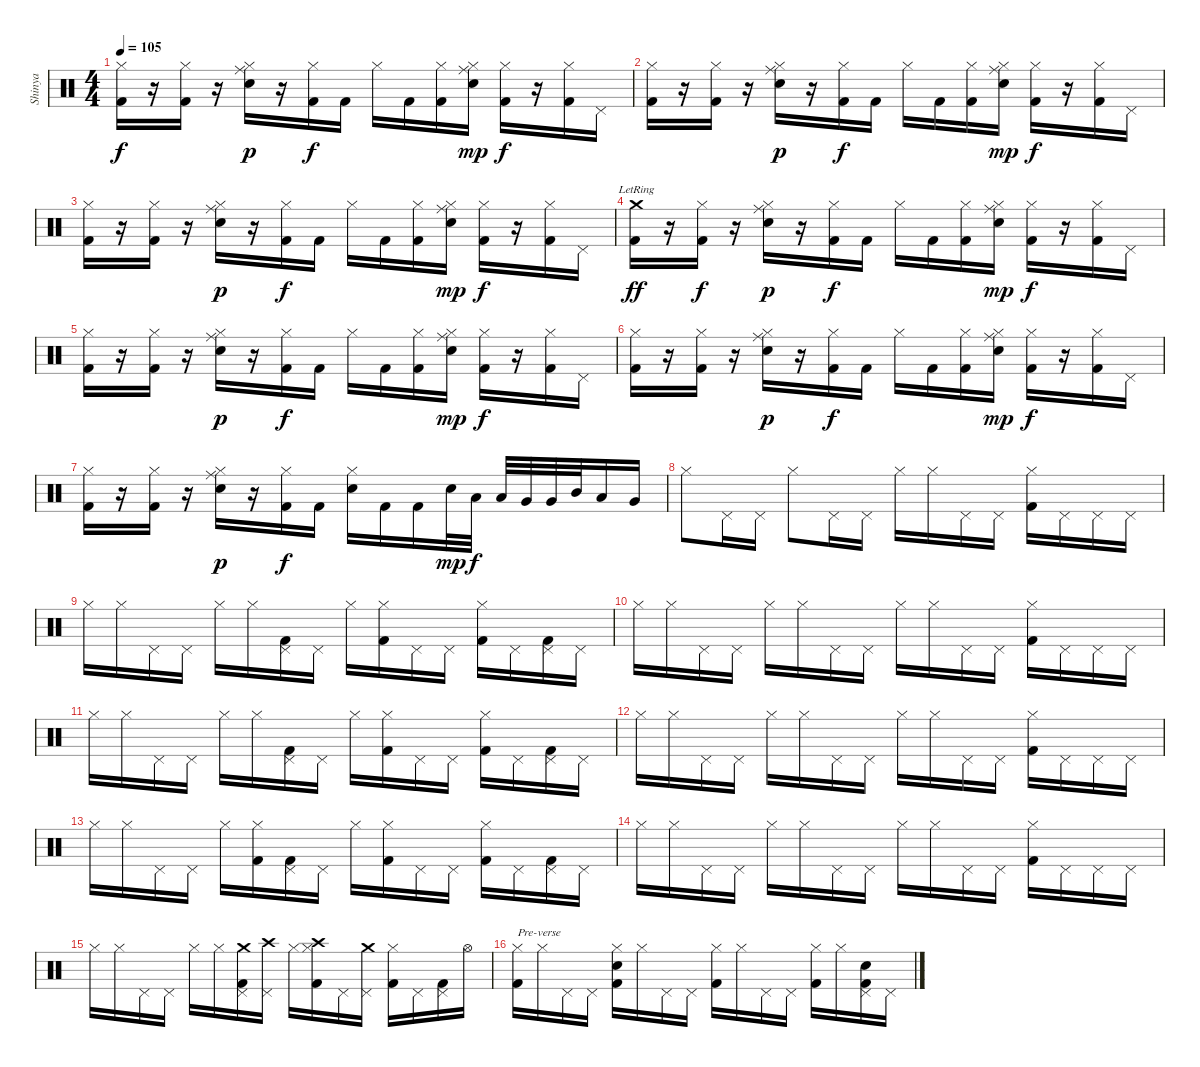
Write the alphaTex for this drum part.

\track ("Shinya" "Shinya") {instrument percussion}
\staff {score}
\articulation defaults
\ts (4 4)
\tempo 105
\clef neutral
\ks c
("Hi-Hat (closed)" "Kick (hit) 2").16{dy f} r.16 ("Hi-Hat (closed)" "Kick (hit) 2").16 r.16 ("Ride (middle)" "Hi-Hat (closed)" "Electric Snare (hit)").16{dy p} r.16 ("Hi-Hat (closed)" "Kick (hit) 2").16{dy f} "Kick (hit) 2".16 "Hi-Hat (closed)".16 "Kick (hit) 2".16 ("Hi-Hat (closed)" "Kick (hit) 2").16 ("Ride (middle)" "Hi-Hat (closed)" "Electric Snare (hit)").16{dy mp} ("Hi-Hat (closed)" "Kick (hit) 2").16{dy f} r.16 ("Hi-Hat (closed)" "Kick (hit) 2").16 "Pedal Hi-Hat (hit)".16 |
("Hi-Hat (closed)" "Kick (hit) 2").16 r.16 ("Hi-Hat (closed)" "Kick (hit) 2").16 r.16 ("Ride (middle)" "Hi-Hat (closed)" "Electric Snare (hit)").16{dy p} r.16 ("Hi-Hat (closed)" "Kick (hit) 2").16{dy f} "Kick (hit) 2".16 "Hi-Hat (closed)".16 "Kick (hit) 2".16 ("Hi-Hat (closed)" "Kick (hit) 2").16 ("Ride (middle)" "Hi-Hat (closed)" "Electric Snare (hit)").16{dy mp} ("Hi-Hat (closed)" "Kick (hit) 2").16{dy f} r.16 ("Hi-Hat (closed)" "Kick (hit) 2").16 "Pedal Hi-Hat (hit)".16 |
("Hi-Hat (closed)" "Kick (hit) 2").16 r.16 ("Hi-Hat (closed)" "Kick (hit) 2").16 r.16 ("Ride (middle)" "Hi-Hat (closed)" "Electric Snare (hit)").16{dy p} r.16 ("Hi-Hat (closed)" "Kick (hit) 2").16{dy f} "Kick (hit) 2".16 "Hi-Hat (closed)".16 "Kick (hit) 2".16 ("Hi-Hat (closed)" "Kick (hit) 2").16 ("Ride (middle)" "Hi-Hat (closed)" "Electric Snare (hit)").16{dy mp} ("Hi-Hat (closed)" "Kick (hit) 2").16{dy f} r.16 ("Hi-Hat (closed)" "Kick (hit) 2").16 "Pedal Hi-Hat (hit)".16 |
("Crash medium (hit)"{lr} "Kick (hit) 2").16{dy ff} r.16 ("Hi-Hat (closed)" "Kick (hit) 2").16{dy f} r.16 ("Ride (middle)" "Hi-Hat (closed)" "Electric Snare (hit)").16{dy p} r.16 ("Hi-Hat (closed)" "Kick (hit) 2").16{dy f} "Kick (hit) 2".16 "Hi-Hat (closed)".16 "Kick (hit) 2".16 ("Hi-Hat (closed)" "Kick (hit) 2").16 ("Ride (middle)" "Hi-Hat (closed)" "Electric Snare (hit)").16{dy mp} ("Hi-Hat (closed)" "Kick (hit) 2").16{dy f} r.16 ("Hi-Hat (closed)" "Kick (hit) 2").16 "Pedal Hi-Hat (hit)".16 |
("Hi-Hat (closed)" "Kick (hit) 2").16 r.16 ("Hi-Hat (closed)" "Kick (hit) 2").16 r.16 ("Ride (middle)" "Hi-Hat (closed)" "Electric Snare (hit)").16{dy p} r.16 ("Hi-Hat (closed)" "Kick (hit) 2").16{dy f} "Kick (hit) 2".16 "Hi-Hat (closed)".16 "Kick (hit) 2".16 ("Hi-Hat (closed)" "Kick (hit) 2").16 ("Ride (middle)" "Hi-Hat (closed)" "Electric Snare (hit)").16{dy mp} ("Hi-Hat (closed)" "Kick (hit) 2").16{dy f} r.16 ("Hi-Hat (closed)" "Kick (hit) 2").16 "Pedal Hi-Hat (hit)".16 |
("Hi-Hat (closed)" "Kick (hit) 2").16 r.16 ("Hi-Hat (closed)" "Kick (hit) 2").16 r.16 ("Ride (middle)" "Hi-Hat (closed)" "Electric Snare (hit)").16{dy p} r.16 ("Hi-Hat (closed)" "Kick (hit) 2").16{dy f} "Kick (hit) 2".16 "Hi-Hat (closed)".16 "Kick (hit) 2".16 ("Hi-Hat (closed)" "Kick (hit) 2").16 ("Ride (middle)" "Hi-Hat (closed)" "Electric Snare (hit)").16{dy mp} ("Hi-Hat (closed)" "Kick (hit) 2").16{dy f} r.16 ("Hi-Hat (closed)" "Kick (hit) 2").16 "Pedal Hi-Hat (hit)".16 |
("Hi-Hat (closed)" "Kick (hit) 2").16 r.16 ("Hi-Hat (closed)" "Kick (hit) 2").16 r.16 ("Ride (middle)" "Hi-Hat (closed)" "Electric Snare (hit)").16{dy p} r.16 ("Hi-Hat (closed)" "Kick (hit) 2").16{dy f} "Kick (hit) 2".16 ("Hi-Hat (closed)" "Electric Snare (hit)").16 "Kick (hit) 2".16 "Kick (hit) 2".16 "Electric Snare (hit)".32{dy mp} "Low Tom (hit)".32{dy f} "Low Tom (hit)".32 "Very Low Tom (hit)".32 "Very Low Tom (hit)".32 "Mid Tom (hit)".32 "Low Tom (hit)".16 "Very Low Tom (hit)".16 |
\section ("" "")
"Hi-Hat (closed)".8 "Pedal Hi-Hat (hit)".16 "Pedal Hi-Hat (hit)".16 "Hi-Hat (closed)".8 "Pedal Hi-Hat (hit)".16 "Pedal Hi-Hat (hit)".16 "Hi-Hat (closed)".16 "Hi-Hat (closed)".16 "Pedal Hi-Hat (hit)".16 "Pedal Hi-Hat (hit)".16 ("Hi-Hat (closed)" "Kick (hit) 2").16 "Pedal Hi-Hat (hit)".16 "Pedal Hi-Hat (hit)".16 "Pedal Hi-Hat (hit)".16 |
"Hi-Hat (closed)".16 "Hi-Hat (closed)".16 "Pedal Hi-Hat (hit)".16 "Pedal Hi-Hat (hit)".16 "Hi-Hat (closed)".16 "Hi-Hat (closed)".16 ("Pedal Hi-Hat (hit)" "Kick (hit) 2").16 "Pedal Hi-Hat (hit)".16 "Hi-Hat (closed)".16 ("Hi-Hat (closed)" "Kick (hit) 2").16 "Pedal Hi-Hat (hit)".16 "Pedal Hi-Hat (hit)".16 ("Hi-Hat (closed)" "Kick (hit) 2").16 "Pedal Hi-Hat (hit)".16 ("Pedal Hi-Hat (hit)" "Kick (hit) 2").16 "Pedal Hi-Hat (hit)".16 |
"Hi-Hat (closed)".16 "Hi-Hat (closed)".16 "Pedal Hi-Hat (hit)".16 "Pedal Hi-Hat (hit)".16 "Hi-Hat (closed)".16 "Hi-Hat (closed)".16 "Pedal Hi-Hat (hit)".16 "Pedal Hi-Hat (hit)".16 "Hi-Hat (closed)".16 "Hi-Hat (closed)".16 "Pedal Hi-Hat (hit)".16 "Pedal Hi-Hat (hit)".16 ("Hi-Hat (closed)" "Kick (hit) 2").16 "Pedal Hi-Hat (hit)".16 "Pedal Hi-Hat (hit)".16 "Pedal Hi-Hat (hit)".16 |
"Hi-Hat (closed)".16 "Hi-Hat (closed)".16 "Pedal Hi-Hat (hit)".16 "Pedal Hi-Hat (hit)".16 "Hi-Hat (closed)".16 "Hi-Hat (closed)".16 ("Pedal Hi-Hat (hit)" "Kick (hit) 2").16 "Pedal Hi-Hat (hit)".16 "Hi-Hat (closed)".16 ("Hi-Hat (closed)" "Kick (hit) 2").16 "Pedal Hi-Hat (hit)".16 "Pedal Hi-Hat (hit)".16 ("Hi-Hat (closed)" "Kick (hit) 2").16 "Pedal Hi-Hat (hit)".16 ("Pedal Hi-Hat (hit)" "Kick (hit) 2").16 "Pedal Hi-Hat (hit)".16 |
"Hi-Hat (closed)".16 "Hi-Hat (closed)".16 "Pedal Hi-Hat (hit)".16 "Pedal Hi-Hat (hit)".16 "Hi-Hat (closed)".16 "Hi-Hat (closed)".16 "Pedal Hi-Hat (hit)".16 "Pedal Hi-Hat (hit)".16 "Hi-Hat (closed)".16 "Hi-Hat (closed)".16 "Pedal Hi-Hat (hit)".16 "Pedal Hi-Hat (hit)".16 ("Hi-Hat (closed)" "Kick (hit) 2").16 "Pedal Hi-Hat (hit)".16 "Pedal Hi-Hat (hit)".16 "Pedal Hi-Hat (hit)".16 |
"Hi-Hat (closed)".16 "Hi-Hat (closed)".16 "Pedal Hi-Hat (hit)".16 "Pedal Hi-Hat (hit)".16 "Hi-Hat (closed)".16 ("Hi-Hat (closed)" "Kick (hit) 2").16 ("Pedal Hi-Hat (hit)" "Kick (hit) 2").16 "Pedal Hi-Hat (hit)".16 "Hi-Hat (closed)".16 ("Hi-Hat (closed)" "Kick (hit) 2").16 "Pedal Hi-Hat (hit)".16 "Pedal Hi-Hat (hit)".16 ("Hi-Hat (closed)" "Kick (hit) 2").16 "Pedal Hi-Hat (hit)".16 ("Pedal Hi-Hat (hit)" "Kick (hit) 2").16 "Pedal Hi-Hat (hit)".16 |
"Hi-Hat (closed)".16 "Hi-Hat (closed)".16 "Pedal Hi-Hat (hit)".16 "Pedal Hi-Hat (hit)".16 "Hi-Hat (closed)".16 "Hi-Hat (closed)".16 "Pedal Hi-Hat (hit)".16 "Pedal Hi-Hat (hit)".16 "Hi-Hat (closed)".16 "Hi-Hat (closed)".16 "Pedal Hi-Hat (hit)".16 "Pedal Hi-Hat (hit)".16 ("Hi-Hat (closed)" "Kick (hit) 2").16 "Pedal Hi-Hat (hit)".16 "Pedal Hi-Hat (hit)".16 "Pedal Hi-Hat (hit)".16 |
"Hi-Hat (closed)".16 "Hi-Hat (closed)".16 "Pedal Hi-Hat (hit)".16 "Pedal Hi-Hat (hit)".16 "Hi-Hat (closed)".16 "Hi-Hat (closed)".16 ("Crash medium (hit)" "Pedal Hi-Hat (hit)" "Kick (hit) 2").16 ("Crash high (hit)" "Pedal Hi-Hat (hit)").16 "Hi-Hat (closed)".16 ("Crash high (hit)" "Hi-Hat (closed)" "Kick (hit) 2").16 "Pedal Hi-Hat (hit)".16 ("Crash medium (hit)" "Pedal Hi-Hat (hit)").16 ("Hi-Hat (closed)" "Kick (hit) 2").16 "Pedal Hi-Hat (hit)".16 ("Pedal Hi-Hat (hit)" "Kick (hit) 2").16 "Hi-Hat (open)".16 |
\section ("" "")
("Hi-Hat (closed)" "Kick (hit) 2").16{txt "Pre-verse"} "Hi-Hat (closed)".16 "Pedal Hi-Hat (hit)".16 "Pedal Hi-Hat (hit)".16 ("Hi-Hat (closed)" "Electric Snare (hit)" "Kick (hit) 2").16 "Hi-Hat (closed)".16 "Pedal Hi-Hat (hit)".16 "Pedal Hi-Hat (hit)".16 ("Hi-Hat (closed)" "Kick (hit) 2").16 "Hi-Hat (closed)".16 "Pedal Hi-Hat (hit)".16 "Pedal Hi-Hat (hit)".16 ("Hi-Hat (closed)" "Kick (hit) 2").16 "Hi-Hat (closed)".16 ("Pedal Hi-Hat (hit)" "Electric Snare (hit)" "Kick (hit) 2").16 "Pedal Hi-Hat (hit)".16
